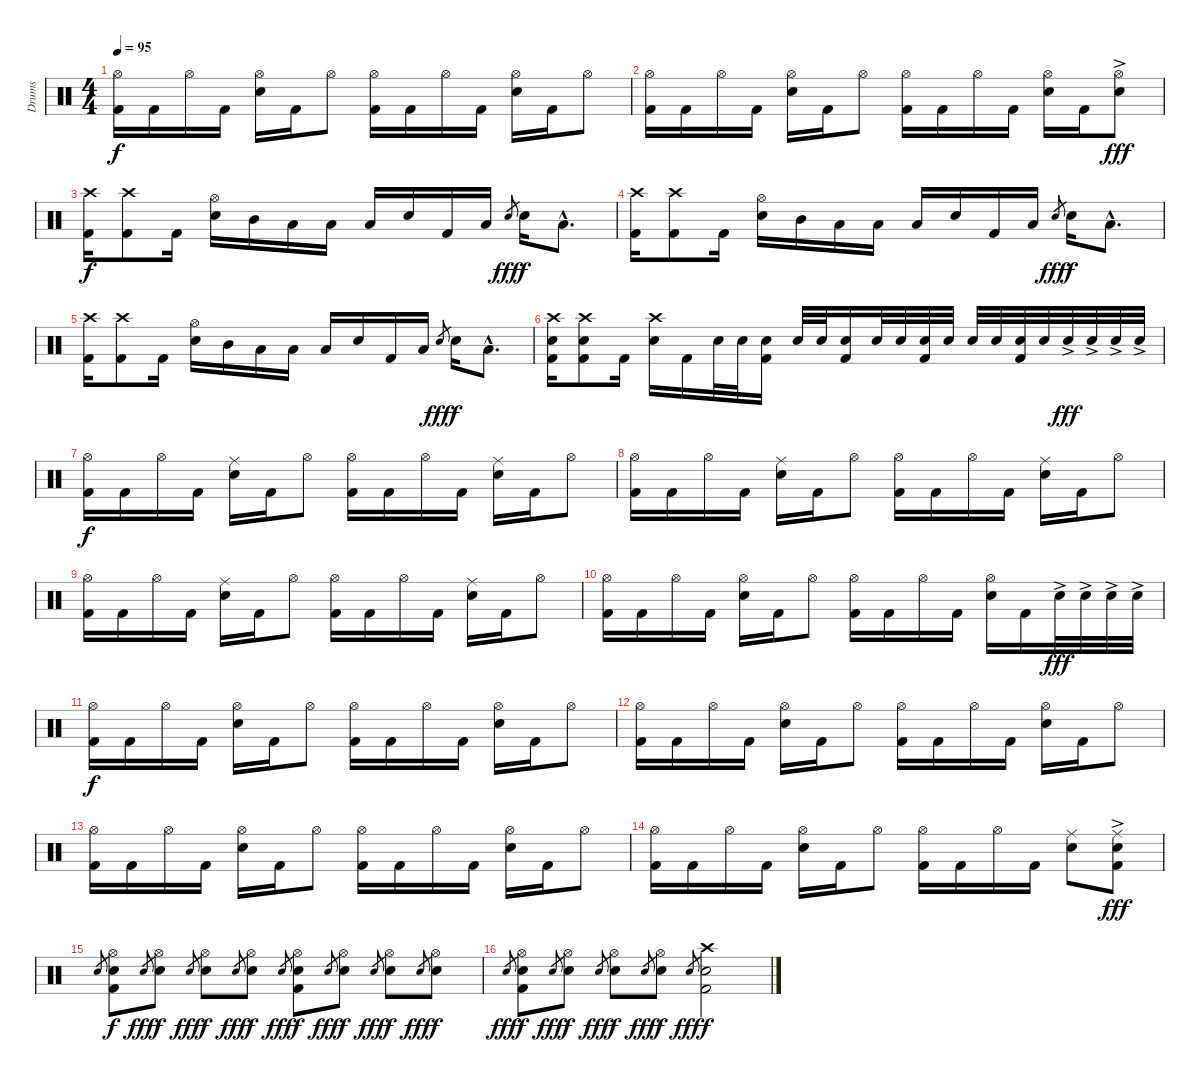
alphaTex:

\track ("Drums" "Drums") {instrument percussion}
\staff {score}
\articulation defaults
\ts (4 4)
\tempo 95
\clef neutral
\ks c
("Hi-Hat (open)" "Kick (hit) 2").16{dy f} "Kick (hit) 2".16 "Hi-Hat (open)".16 "Kick (hit) 2".16 ("Hi-Hat (open)" "Electric Snare (hit)").16 "Kick (hit) 2".16 "Hi-Hat (open)".8 ("Hi-Hat (open)" "Kick (hit) 2").16 "Kick (hit) 2".16 "Hi-Hat (open)".16 "Kick (hit) 2".16 ("Hi-Hat (open)" "Electric Snare (hit)").16 "Kick (hit) 2".16 "Hi-Hat (open)".8 |
("Hi-Hat (open)" "Kick (hit) 2").16 "Kick (hit) 2".16 "Hi-Hat (open)".16 "Kick (hit) 2".16 ("Hi-Hat (open)" "Electric Snare (hit)").16 "Kick (hit) 2".16 "Hi-Hat (open)".8 ("Hi-Hat (open)" "Kick (hit) 2").16 "Kick (hit) 2".16 "Hi-Hat (open)".16 "Kick (hit) 2".16 ("Hi-Hat (open)" "Electric Snare (hit)").16 "Kick (hit) 2".16 ("Hi-Hat (open)" "Electric Snare (hit)"{ac}).8{dy fff} |
("Crash high (hit)" "Kick (hit) 2").16{dy f} ("Crash high (hit)" "Kick (hit) 2").8 "Kick (hit) 2".16 ("Hi-Hat (open)" "Electric Snare (hit)").16 "Mid Tom (hit)".16 "Low Tom (hit)".16 "Low Floor Tom (hit)".16 "Low Floor Tom (hit)".16 "Electric Snare (hit)".16 "Kick (hit) 2".16 "Low Floor Tom (hit)".16 "Electric Snare (hit)".8{gr dy fff} "Electric Snare (hit)".16{dy f} "Low Floor Tom (hit)"{hac}.8{d} |
("Crash high (hit)" "Kick (hit) 2").16 ("Crash high (hit)" "Kick (hit) 2").8 "Kick (hit) 2".16 ("Hi-Hat (open)" "Electric Snare (hit)").16 "Mid Tom (hit)".16 "Low Tom (hit)".16 "Low Floor Tom (hit)".16 "Low Floor Tom (hit)".16 "Electric Snare (hit)".16 "Kick (hit) 2".16 "Low Floor Tom (hit)".16 "Electric Snare (hit)".8{gr dy fff} "Electric Snare (hit)".16{dy f} "Low Floor Tom (hit)"{hac}.8{d} |
("Crash high (hit)" "Kick (hit) 2").16 ("Crash high (hit)" "Kick (hit) 2").8 "Kick (hit) 2".16 ("Hi-Hat (open)" "Electric Snare (hit)").16 "Mid Tom (hit)".16 "Low Tom (hit)".16 "Low Floor Tom (hit)".16 "Low Floor Tom (hit)".16 "Electric Snare (hit)".16 "Kick (hit) 2".16 "Low Floor Tom (hit)".16 "Electric Snare (hit)".8{gr dy fff} "Electric Snare (hit)".16{dy f} "Low Floor Tom (hit)"{hac}.8{d} |
("Crash high (hit)" "Electric Snare (hit)" "Kick (hit) 2").16 ("Crash high (hit)" "Electric Snare (hit)" "Kick (hit) 2").8 "Kick (hit) 2".16 ("Crash high (hit)" "Electric Snare (hit)").16 "Kick (hit) 2".16 "Electric Snare (hit)".32 "Electric Snare (hit)".32 ("Electric Snare (hit)" "Kick (hit) 2").16 "Electric Snare (hit)".32 "Electric Snare (hit)".32 ("Electric Snare (hit)" "Kick (hit) 2").16 "Electric Snare (hit)".32 "Electric Snare (hit)".32 ("Electric Snare (hit)" "Kick (hit) 2").32 "Electric Snare (hit)".32 "Electric Snare (hit)".32 "Electric Snare (hit)".32 ("Electric Snare (hit)" "Kick (hit) 2").32 "Electric Snare (hit)".32 "Electric Snare (hit)"{ac}.32{dy fff} "Electric Snare (hit)"{ac}.32 "Electric Snare (hit)"{ac}.32 "Electric Snare (hit)"{ac}.32 |
("Hi-Hat (open)" "Kick (hit) 2").16{dy f} "Kick (hit) 2".16 "Hi-Hat (open)".16 "Kick (hit) 2".16 ("Ride (middle)" "Electric Snare (hit)").16 "Kick (hit) 2".16 "Hi-Hat (open)".8 ("Hi-Hat (open)" "Kick (hit) 2").16 "Kick (hit) 2".16 "Hi-Hat (open)".16 "Kick (hit) 2".16 ("Ride (middle)" "Electric Snare (hit)").16 "Kick (hit) 2".16 "Hi-Hat (open)".8 |
("Hi-Hat (open)" "Kick (hit) 2").16 "Kick (hit) 2".16 "Hi-Hat (open)".16 "Kick (hit) 2".16 ("Ride (middle)" "Electric Snare (hit)").16 "Kick (hit) 2".16 "Hi-Hat (open)".8 ("Hi-Hat (open)" "Kick (hit) 2").16 "Kick (hit) 2".16 "Hi-Hat (open)".16 "Kick (hit) 2".16 ("Ride (middle)" "Electric Snare (hit)").16 "Kick (hit) 2".16 "Hi-Hat (open)".8 |
("Hi-Hat (open)" "Kick (hit) 2").16 "Kick (hit) 2".16 "Hi-Hat (open)".16 "Kick (hit) 2".16 ("Ride (middle)" "Electric Snare (hit)").16 "Kick (hit) 2".16 "Hi-Hat (open)".8 ("Hi-Hat (open)" "Kick (hit) 2").16 "Kick (hit) 2".16 "Hi-Hat (open)".16 "Kick (hit) 2".16 ("Ride (middle)" "Electric Snare (hit)").16 "Kick (hit) 2".16 "Hi-Hat (open)".8 |
("Hi-Hat (open)" "Kick (hit) 2").16 "Kick (hit) 2".16 "Hi-Hat (open)".16 "Kick (hit) 2".16 ("Hi-Hat (open)" "Electric Snare (hit)").16 "Kick (hit) 2".16 "Hi-Hat (open)".8 ("Hi-Hat (open)" "Kick (hit) 2").16 "Kick (hit) 2".16 "Hi-Hat (open)".16 "Kick (hit) 2".16 ("Hi-Hat (open)" "Electric Snare (hit)").16 "Kick (hit) 2".16 "Electric Snare (hit)"{ac}.32{dy fff} "Electric Snare (hit)"{ac}.32 "Electric Snare (hit)"{ac}.32 "Electric Snare (hit)"{ac}.32 |
("Hi-Hat (open)" "Kick (hit) 2").16{dy f} "Kick (hit) 2".16 "Hi-Hat (open)".16 "Kick (hit) 2".16 ("Hi-Hat (open)" "Electric Snare (hit)").16 "Kick (hit) 2".16 "Hi-Hat (open)".8 ("Hi-Hat (open)" "Kick (hit) 2").16 "Kick (hit) 2".16 "Hi-Hat (open)".16 "Kick (hit) 2".16 ("Hi-Hat (open)" "Electric Snare (hit)").16 "Kick (hit) 2".16 "Hi-Hat (open)".8 |
("Hi-Hat (open)" "Kick (hit) 2").16 "Kick (hit) 2".16 "Hi-Hat (open)".16 "Kick (hit) 2".16 ("Hi-Hat (open)" "Electric Snare (hit)").16 "Kick (hit) 2".16 "Hi-Hat (open)".8 ("Hi-Hat (open)" "Kick (hit) 2").16 "Kick (hit) 2".16 "Hi-Hat (open)".16 "Kick (hit) 2".16 ("Hi-Hat (open)" "Electric Snare (hit)").16 "Kick (hit) 2".16 "Hi-Hat (open)".8 |
("Hi-Hat (open)" "Kick (hit) 2").16 "Kick (hit) 2".16 "Hi-Hat (open)".16 "Kick (hit) 2".16 ("Hi-Hat (open)" "Electric Snare (hit)").16 "Kick (hit) 2".16 "Hi-Hat (open)".8 ("Hi-Hat (open)" "Kick (hit) 2").16 "Kick (hit) 2".16 "Hi-Hat (open)".16 "Kick (hit) 2".16 ("Hi-Hat (open)" "Electric Snare (hit)").16 "Kick (hit) 2".16 "Hi-Hat (open)".8 |
("Hi-Hat (open)" "Kick (hit) 2").16 "Kick (hit) 2".16 "Hi-Hat (open)".16 "Kick (hit) 2".16 ("Hi-Hat (open)" "Electric Snare (hit)").16 "Kick (hit) 2".16 "Hi-Hat (open)".8 ("Hi-Hat (open)" "Kick (hit) 2").16 "Kick (hit) 2".16 "Hi-Hat (open)".16 "Kick (hit) 2".16 ("Ride (middle)" "Electric Snare (hit)").8 ("Ride (middle)" "Electric Snare (hit)" "Kick (hit) 2"{ac}).8{dy fff} |
"Electric Snare (hit)".8{gr} ("Hi-Hat (open)" "Electric Snare (hit)" "Kick (hit) 2").8{dy f} "Electric Snare (hit)".8{gr dy fff} ("Hi-Hat (open)" "Electric Snare (hit)").8{dy f} "Electric Snare (hit)".8{gr dy fff} ("Hi-Hat (open)" "Electric Snare (hit)").8{dy f} "Electric Snare (hit)".8{gr dy fff} ("Hi-Hat (open)" "Electric Snare (hit)").8{dy f} "Electric Snare (hit)".8{gr dy fff} ("Hi-Hat (open)" "Electric Snare (hit)" "Kick (hit) 2").8{dy f} "Electric Snare (hit)".8{gr dy fff} ("Hi-Hat (open)" "Electric Snare (hit)").8{dy f} "Electric Snare (hit)".8{gr dy fff} ("Hi-Hat (open)" "Electric Snare (hit)").8{dy f} "Electric Snare (hit)".8{gr dy fff} ("Hi-Hat (open)" "Electric Snare (hit)").8{dy f} |
"Electric Snare (hit)".8{gr dy fff} ("Hi-Hat (open)" "Electric Snare (hit)" "Kick (hit) 2").8{dy f} "Electric Snare (hit)".8{gr dy fff} ("Hi-Hat (open)" "Electric Snare (hit)").8{dy f} "Electric Snare (hit)".8{gr dy fff} ("Hi-Hat (open)" "Electric Snare (hit)").8{dy f} "Electric Snare (hit)".8{gr dy fff} ("Hi-Hat (open)" "Electric Snare (hit)").8{dy f} "Electric Snare (hit)".8{gr dy fff} ("Crash high (hit)" "Electric Snare (hit)" "Kick (hit) 2").2{dy f}
